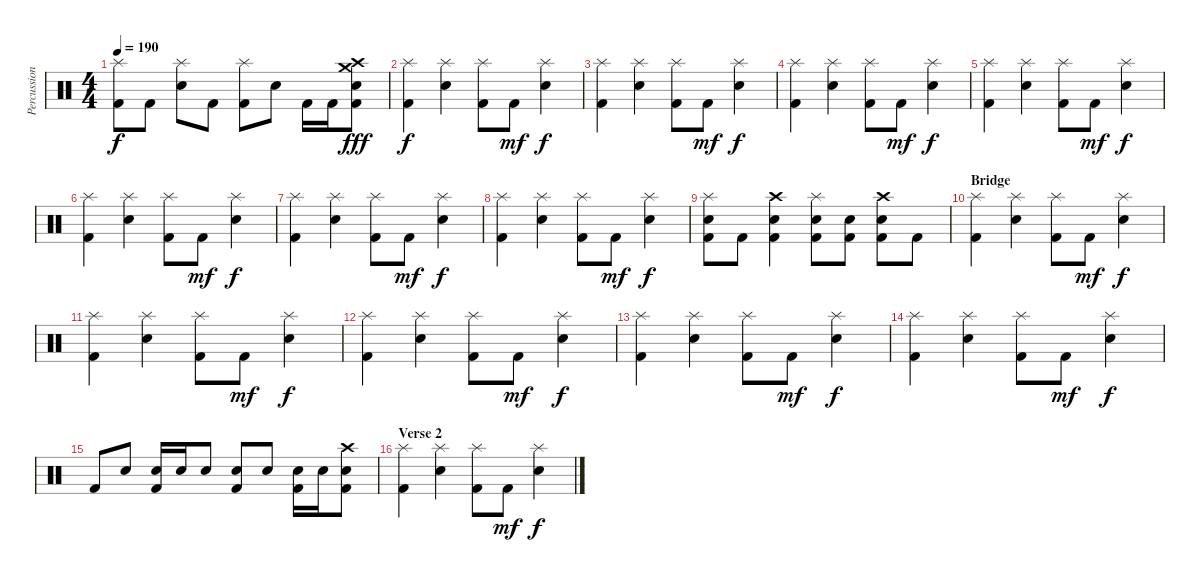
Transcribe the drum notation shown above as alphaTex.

\track ("Percussion" "Percussion") {instrument percussion}
\staff {score}
\articulation defaults
\ts (4 4)
\tempo 190
\clef neutral
\ks c
("Splash (hit)" "Kick (hit) 2").8{dy f} "Kick (hit) 2".8 ("Splash (hit)" "Electric Snare (hit)").8 "Kick (hit) 2".8 ("Splash (hit)" "Kick (hit) 2").8 "Electric Snare (hit)".8 "Kick (hit) 2".16 "Kick (hit) 2".16 ("Crash high (hit)" "Crash medium (hit)" "Electric Snare (hit)" "Kick (hit) 2").8{dy fff} |
("Splash (hit)" "Kick (hit) 2").4{dy f} ("Splash (hit)" "Electric Snare (hit)").4 ("Splash (hit)" "Kick (hit) 2").8 "Kick (hit) 2".8{dy mf} ("Splash (hit)" "Electric Snare (hit)").4{dy f} |
("Splash (hit)" "Kick (hit) 2").4 ("Splash (hit)" "Electric Snare (hit)").4 ("Splash (hit)" "Kick (hit) 2").8 "Kick (hit) 2".8{dy mf} ("Splash (hit)" "Electric Snare (hit)").4{dy f} |
("Splash (hit)" "Kick (hit) 2").4 ("Splash (hit)" "Electric Snare (hit)").4 ("Splash (hit)" "Kick (hit) 2").8 "Kick (hit) 2".8{dy mf} ("Splash (hit)" "Electric Snare (hit)").4{dy f} |
("Splash (hit)" "Kick (hit) 2").4 ("Splash (hit)" "Electric Snare (hit)").4 ("Splash (hit)" "Kick (hit) 2").8 "Kick (hit) 2".8{dy mf} ("Splash (hit)" "Electric Snare (hit)").4{dy f} |
("Splash (hit)" "Kick (hit) 2").4 ("Splash (hit)" "Electric Snare (hit)").4 ("Splash (hit)" "Kick (hit) 2").8 "Kick (hit) 2".8{dy mf} ("Splash (hit)" "Electric Snare (hit)").4{dy f} |
("Splash (hit)" "Kick (hit) 2").4 ("Splash (hit)" "Electric Snare (hit)").4 ("Splash (hit)" "Kick (hit) 2").8 "Kick (hit) 2".8{dy mf} ("Splash (hit)" "Electric Snare (hit)").4{dy f} |
("Splash (hit)" "Kick (hit) 2").4 ("Splash (hit)" "Electric Snare (hit)").4 ("Splash (hit)" "Kick (hit) 2").8 "Kick (hit) 2".8{dy mf} ("Splash (hit)" "Electric Snare (hit)").4{dy f} |
("Splash (hit)" "Electric Snare (hit)" "Kick (hit) 2").8 "Kick (hit) 2".8 ("Crash high (hit)" "Electric Snare (hit)" "Kick (hit) 2").4 ("Splash (hit)" "Electric Snare (hit)" "Kick (hit) 2").8 ("Electric Snare (hit)" "Kick (hit) 2").8 ("Crash high (hit)" "Electric Snare (hit)" "Kick (hit) 2").8 "Kick (hit) 2".8 |
\section ("" "Bridge")
("Splash (hit)" "Kick (hit) 2").4 ("Splash (hit)" "Electric Snare (hit)").4 ("Splash (hit)" "Kick (hit) 2").8 "Kick (hit) 2".8{dy mf} ("Splash (hit)" "Electric Snare (hit)").4{dy f} |
("Splash (hit)" "Kick (hit) 2").4 ("Splash (hit)" "Electric Snare (hit)").4 ("Splash (hit)" "Kick (hit) 2").8 "Kick (hit) 2".8{dy mf} ("Splash (hit)" "Electric Snare (hit)").4{dy f} |
("Splash (hit)" "Kick (hit) 2").4 ("Splash (hit)" "Electric Snare (hit)").4 ("Splash (hit)" "Kick (hit) 2").8 "Kick (hit) 2".8{dy mf} ("Splash (hit)" "Electric Snare (hit)").4{dy f} |
("Splash (hit)" "Kick (hit) 2").4 ("Splash (hit)" "Electric Snare (hit)").4 ("Splash (hit)" "Kick (hit) 2").8 "Kick (hit) 2".8{dy mf} ("Splash (hit)" "Electric Snare (hit)").4{dy f} |
("Splash (hit)" "Kick (hit) 2").4 ("Splash (hit)" "Electric Snare (hit)").4 ("Splash (hit)" "Kick (hit) 2").8 "Kick (hit) 2".8{dy mf} ("Splash (hit)" "Electric Snare (hit)").4{dy f} |
"Kick (hit) 2".8 "Electric Snare (hit)".8 ("Electric Snare (hit)" "Kick (hit) 2").16 "Electric Snare (hit)".16 "Electric Snare (hit)".8 ("Electric Snare (hit)" "Kick (hit) 2").8 "Electric Snare (hit)".8 ("Electric Snare (hit)" "Kick (hit) 2").16 "Electric Snare (hit)".16 ("Crash high (hit)" "Electric Snare (hit)" "Kick (hit) 2").8 |
\section ("" "Verse 2")
("Splash (hit)" "Kick (hit) 2").4 ("Splash (hit)" "Electric Snare (hit)").4 ("Splash (hit)" "Kick (hit) 2").8 "Kick (hit) 2".8{dy mf} ("Splash (hit)" "Electric Snare (hit)").4{dy f}
